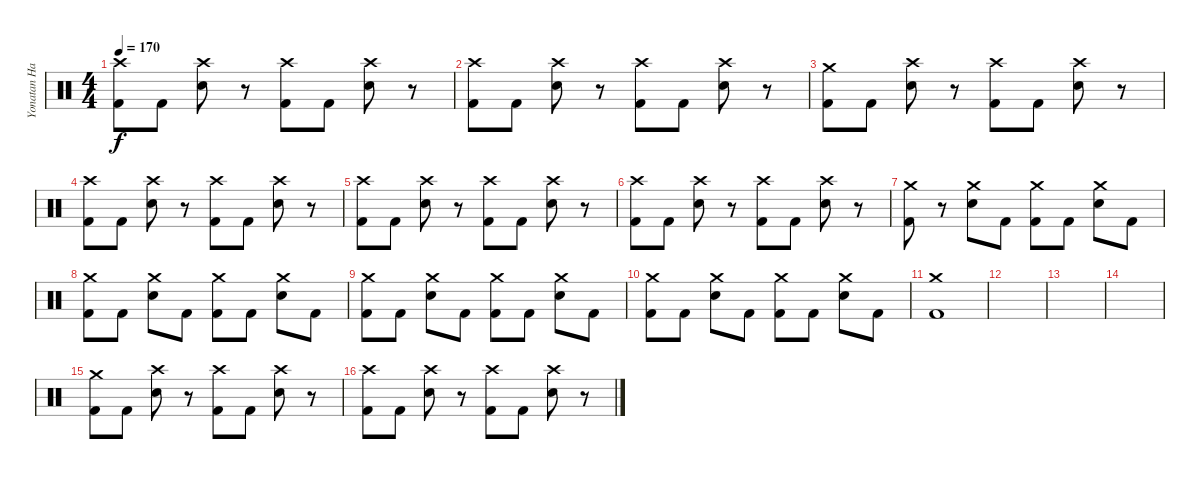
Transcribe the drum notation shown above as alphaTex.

\track ("Yonatan Harpak (drums)" "Yonatan Ha") {instrument percussion}
\staff {score}
\articulation defaults
\ts (4 4)
\tempo 170
\clef neutral
\ks c
("Crash high (hit)" "Kick (hit) 2").8{dy f} "Kick (hit) 2".8 ("Crash high (hit)" "Snare (hit) 2").8 r.8 ("Crash high (hit)" "Kick (hit) 2").8 "Kick (hit) 2".8 ("Crash high (hit)" "Snare (hit) 2").8 r.8 |
("Crash high (hit)" "Kick (hit) 2").8 "Kick (hit) 2".8 ("Crash high (hit)" "Snare (hit) 2").8 r.8 ("Crash high (hit)" "Kick (hit) 2").8 "Kick (hit) 2".8 ("Crash high (hit)" "Snare (hit) 2").8 r.8 |
("Crash medium (hit)" "Kick (hit) 2").8 "Kick (hit) 2".8 ("Crash high (hit)" "Snare (hit) 2").8 r.8 ("Crash high (hit)" "Kick (hit) 2").8 "Kick (hit) 2".8 ("Crash high (hit)" "Snare (hit) 2").8 r.8 |
("Crash high (hit)" "Kick (hit) 2").8 "Kick (hit) 2".8 ("Crash high (hit)" "Snare (hit) 2").8 r.8 ("Crash high (hit)" "Kick (hit) 2").8 "Kick (hit) 2".8 ("Crash high (hit)" "Snare (hit) 2").8 r.8 |
("Crash high (hit)" "Kick (hit) 2").8 "Kick (hit) 2".8 ("Crash high (hit)" "Snare (hit) 2").8 r.8 ("Crash high (hit)" "Kick (hit) 2").8 "Kick (hit) 2".8 ("Crash high (hit)" "Snare (hit) 2").8 r.8 |
("Crash high (hit)" "Kick (hit) 2").8 "Kick (hit) 2".8 ("Crash high (hit)" "Snare (hit) 2").8 r.8 ("Crash high (hit)" "Kick (hit) 2").8 "Kick (hit) 2".8 ("Crash high (hit)" "Snare (hit) 2").8 r.8 |
("Crash medium (hit)" "Kick (hit) 2").8 r.8 ("Crash medium (hit)" "Snare (hit) 2").8 "Kick (hit) 2".8 ("Crash medium (hit)" "Kick (hit) 2").8 "Kick (hit) 2".8 ("Crash medium (hit)" "Snare (hit) 2").8 "Kick (hit) 2".8 |
("Crash medium (hit)" "Kick (hit) 2").8 "Kick (hit) 2".8 ("Crash medium (hit)" "Snare (hit) 2").8 "Kick (hit) 2".8 ("Crash medium (hit)" "Kick (hit) 2").8 "Kick (hit) 2".8 ("Crash medium (hit)" "Snare (hit) 2").8 "Kick (hit) 2".8 |
("Crash medium (hit)" "Kick (hit) 2").8 "Kick (hit) 2".8 ("Crash medium (hit)" "Snare (hit) 2").8 "Kick (hit) 2".8 ("Crash medium (hit)" "Kick (hit) 2").8 "Kick (hit) 2".8 ("Crash medium (hit)" "Snare (hit) 2").8 "Kick (hit) 2".8 |
("Crash medium (hit)" "Kick (hit) 2").8 "Kick (hit) 2".8 ("Crash medium (hit)" "Snare (hit) 2").8 "Kick (hit) 2".8 ("Crash medium (hit)" "Kick (hit) 2").8 "Kick (hit) 2".8 ("Crash medium (hit)" "Snare (hit) 2").8 "Kick (hit) 2".8 |
("Crash medium (hit)" "Kick (hit) 2").1 |
|
|
|
("Crash medium (hit)" "Kick (hit) 2").8 "Kick (hit) 2".8 ("Crash high (hit)" "Snare (hit) 2").8 r.8 ("Crash high (hit)" "Kick (hit) 2").8 "Kick (hit) 2".8 ("Crash high (hit)" "Snare (hit) 2").8 r.8 |
("Crash high (hit)" "Kick (hit) 2").8 "Kick (hit) 2".8 ("Crash high (hit)" "Snare (hit) 2").8 r.8 ("Crash high (hit)" "Kick (hit) 2").8 "Kick (hit) 2".8 ("Crash high (hit)" "Snare (hit) 2").8 r.8
